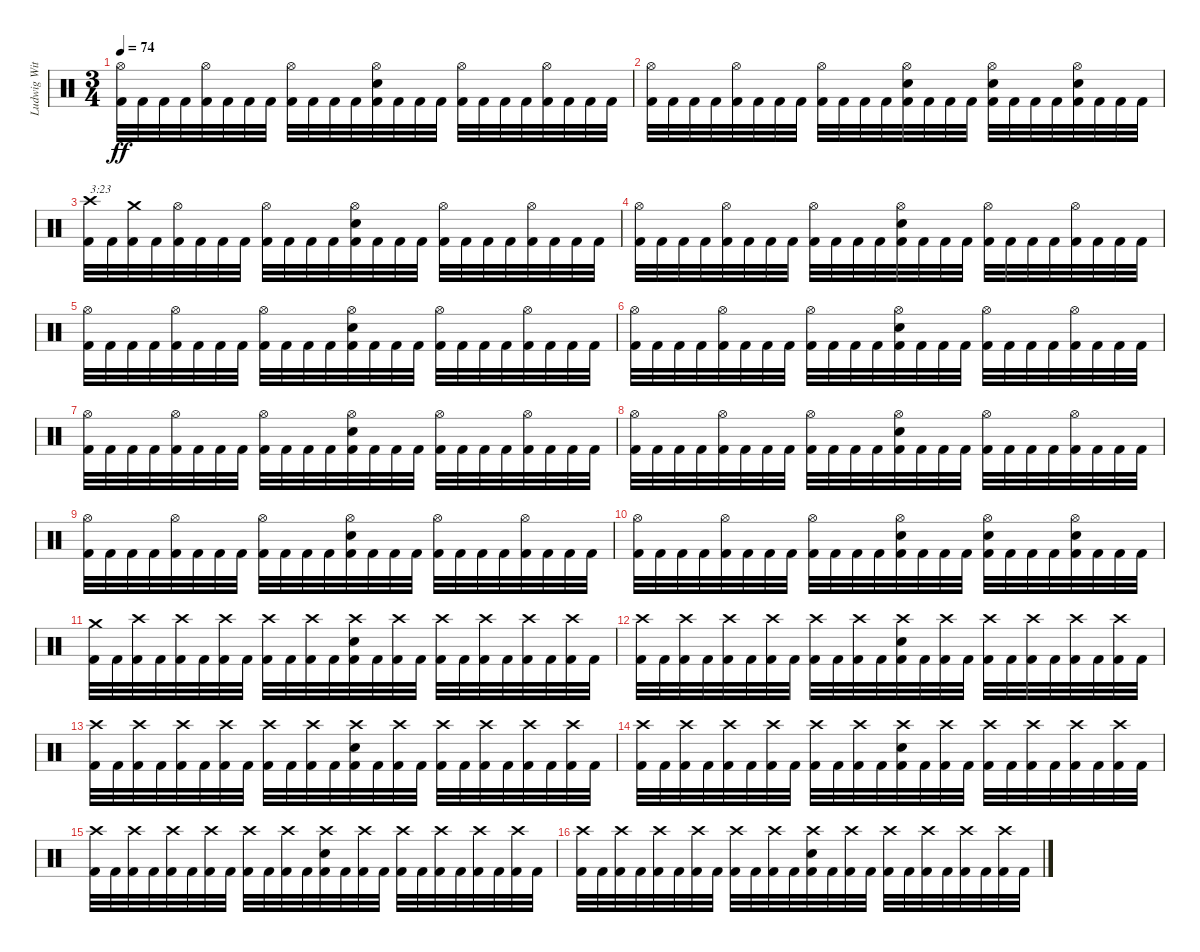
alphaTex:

\track ("Ludwig Witt (Drums)" "Ludwig Wit") {instrument percussion}
\staff
\articulation defaults
\ts (3 4)
\tempo 74
\clef neutral
\ks c
("Hi-Hat (open)" "Kick (hit) 2").32{dy ff} "Kick (hit) 2".32 "Kick (hit) 2".32 "Kick (hit) 2".32 ("Hi-Hat (open)" "Kick (hit) 2").32 "Kick (hit) 2".32 "Kick (hit) 2".32 "Kick (hit) 2".32 ("Hi-Hat (open)" "Kick (hit) 2").32 "Kick (hit) 2".32 "Kick (hit) 2".32 "Kick (hit) 2".32 ("Hi-Hat (open)" "Electric Snare (hit)" "Kick (hit) 2").32 "Kick (hit) 2".32 "Kick (hit) 2".32 "Kick (hit) 2".32 ("Hi-Hat (open)" "Kick (hit) 2").32 "Kick (hit) 2".32 "Kick (hit) 2".32 "Kick (hit) 2".32 ("Hi-Hat (open)" "Kick (hit) 2").32 "Kick (hit) 2".32 "Kick (hit) 2".32 "Kick (hit) 2".32 |
("Hi-Hat (open)" "Kick (hit) 2").32 "Kick (hit) 2".32 "Kick (hit) 2".32 "Kick (hit) 2".32 ("Hi-Hat (open)" "Kick (hit) 2").32 "Kick (hit) 2".32 "Kick (hit) 2".32 "Kick (hit) 2".32 ("Hi-Hat (open)" "Kick (hit) 2").32 "Kick (hit) 2".32 "Kick (hit) 2".32 "Kick (hit) 2".32 ("Hi-Hat (open)" "Electric Snare (hit)" "Kick (hit) 2").32 "Kick (hit) 2".32 "Kick (hit) 2".32 "Kick (hit) 2".32 ("Hi-Hat (open)" "Electric Snare (hit)" "Kick (hit) 2").32 "Kick (hit) 2".32 "Kick (hit) 2".32 "Kick (hit) 2".32 ("Hi-Hat (open)" "Electric Snare (hit)" "Kick (hit) 2").32 "Kick (hit) 2".32 "Kick (hit) 2".32 "Kick (hit) 2".32 |
("Crash high (hit)" "Kick (hit) 2").32{txt "3:23"} "Kick (hit) 2".32 ("Crash medium (hit)" "Kick (hit) 2").32 "Kick (hit) 2".32 ("Hi-Hat (open)" "Kick (hit) 2").32 "Kick (hit) 2".32 "Kick (hit) 2".32 "Kick (hit) 2".32 ("Hi-Hat (open)" "Kick (hit) 2").32 "Kick (hit) 2".32 "Kick (hit) 2".32 "Kick (hit) 2".32 ("Hi-Hat (open)" "Electric Snare (hit)" "Kick (hit) 2").32 "Kick (hit) 2".32 "Kick (hit) 2".32 "Kick (hit) 2".32 ("Hi-Hat (open)" "Kick (hit) 2").32 "Kick (hit) 2".32 "Kick (hit) 2".32 "Kick (hit) 2".32 ("Hi-Hat (open)" "Kick (hit) 2").32 "Kick (hit) 2".32 "Kick (hit) 2".32 "Kick (hit) 2".32 |
("Hi-Hat (open)" "Kick (hit) 2").32 "Kick (hit) 2".32 "Kick (hit) 2".32 "Kick (hit) 2".32 ("Hi-Hat (open)" "Kick (hit) 2").32 "Kick (hit) 2".32 "Kick (hit) 2".32 "Kick (hit) 2".32 ("Hi-Hat (open)" "Kick (hit) 2").32 "Kick (hit) 2".32 "Kick (hit) 2".32 "Kick (hit) 2".32 ("Hi-Hat (open)" "Electric Snare (hit)" "Kick (hit) 2").32 "Kick (hit) 2".32 "Kick (hit) 2".32 "Kick (hit) 2".32 ("Hi-Hat (open)" "Kick (hit) 2").32 "Kick (hit) 2".32 "Kick (hit) 2".32 "Kick (hit) 2".32 ("Hi-Hat (open)" "Kick (hit) 2").32 "Kick (hit) 2".32 "Kick (hit) 2".32 "Kick (hit) 2".32 |
("Hi-Hat (open)" "Kick (hit) 2").32 "Kick (hit) 2".32 "Kick (hit) 2".32 "Kick (hit) 2".32 ("Hi-Hat (open)" "Kick (hit) 2").32 "Kick (hit) 2".32 "Kick (hit) 2".32 "Kick (hit) 2".32 ("Hi-Hat (open)" "Kick (hit) 2").32 "Kick (hit) 2".32 "Kick (hit) 2".32 "Kick (hit) 2".32 ("Hi-Hat (open)" "Electric Snare (hit)" "Kick (hit) 2").32 "Kick (hit) 2".32 "Kick (hit) 2".32 "Kick (hit) 2".32 ("Hi-Hat (open)" "Kick (hit) 2").32 "Kick (hit) 2".32 "Kick (hit) 2".32 "Kick (hit) 2".32 ("Hi-Hat (open)" "Kick (hit) 2").32 "Kick (hit) 2".32 "Kick (hit) 2".32 "Kick (hit) 2".32 |
("Hi-Hat (open)" "Kick (hit) 2").32 "Kick (hit) 2".32 "Kick (hit) 2".32 "Kick (hit) 2".32 ("Hi-Hat (open)" "Kick (hit) 2").32 "Kick (hit) 2".32 "Kick (hit) 2".32 "Kick (hit) 2".32 ("Hi-Hat (open)" "Kick (hit) 2").32 "Kick (hit) 2".32 "Kick (hit) 2".32 "Kick (hit) 2".32 ("Hi-Hat (open)" "Electric Snare (hit)" "Kick (hit) 2").32 "Kick (hit) 2".32 "Kick (hit) 2".32 "Kick (hit) 2".32 ("Hi-Hat (open)" "Kick (hit) 2").32 "Kick (hit) 2".32 "Kick (hit) 2".32 "Kick (hit) 2".32 ("Hi-Hat (open)" "Kick (hit) 2").32 "Kick (hit) 2".32 "Kick (hit) 2".32 "Kick (hit) 2".32 |
("Hi-Hat (open)" "Kick (hit) 2").32 "Kick (hit) 2".32 "Kick (hit) 2".32 "Kick (hit) 2".32 ("Hi-Hat (open)" "Kick (hit) 2").32 "Kick (hit) 2".32 "Kick (hit) 2".32 "Kick (hit) 2".32 ("Hi-Hat (open)" "Kick (hit) 2").32 "Kick (hit) 2".32 "Kick (hit) 2".32 "Kick (hit) 2".32 ("Hi-Hat (open)" "Electric Snare (hit)" "Kick (hit) 2").32 "Kick (hit) 2".32 "Kick (hit) 2".32 "Kick (hit) 2".32 ("Hi-Hat (open)" "Kick (hit) 2").32 "Kick (hit) 2".32 "Kick (hit) 2".32 "Kick (hit) 2".32 ("Hi-Hat (open)" "Kick (hit) 2").32 "Kick (hit) 2".32 "Kick (hit) 2".32 "Kick (hit) 2".32 |
("Hi-Hat (open)" "Kick (hit) 2").32 "Kick (hit) 2".32 "Kick (hit) 2".32 "Kick (hit) 2".32 ("Hi-Hat (open)" "Kick (hit) 2").32 "Kick (hit) 2".32 "Kick (hit) 2".32 "Kick (hit) 2".32 ("Hi-Hat (open)" "Kick (hit) 2").32 "Kick (hit) 2".32 "Kick (hit) 2".32 "Kick (hit) 2".32 ("Hi-Hat (open)" "Electric Snare (hit)" "Kick (hit) 2").32 "Kick (hit) 2".32 "Kick (hit) 2".32 "Kick (hit) 2".32 ("Hi-Hat (open)" "Kick (hit) 2").32 "Kick (hit) 2".32 "Kick (hit) 2".32 "Kick (hit) 2".32 ("Hi-Hat (open)" "Kick (hit) 2").32 "Kick (hit) 2".32 "Kick (hit) 2".32 "Kick (hit) 2".32 |
("Hi-Hat (open)" "Kick (hit) 2").32 "Kick (hit) 2".32 "Kick (hit) 2".32 "Kick (hit) 2".32 ("Hi-Hat (open)" "Kick (hit) 2").32 "Kick (hit) 2".32 "Kick (hit) 2".32 "Kick (hit) 2".32 ("Hi-Hat (open)" "Kick (hit) 2").32 "Kick (hit) 2".32 "Kick (hit) 2".32 "Kick (hit) 2".32 ("Hi-Hat (open)" "Electric Snare (hit)" "Kick (hit) 2").32 "Kick (hit) 2".32 "Kick (hit) 2".32 "Kick (hit) 2".32 ("Hi-Hat (open)" "Kick (hit) 2").32 "Kick (hit) 2".32 "Kick (hit) 2".32 "Kick (hit) 2".32 ("Hi-Hat (open)" "Kick (hit) 2").32 "Kick (hit) 2".32 "Kick (hit) 2".32 "Kick (hit) 2".32 |
("Hi-Hat (open)" "Kick (hit) 2").32 "Kick (hit) 2".32 "Kick (hit) 2".32 "Kick (hit) 2".32 ("Hi-Hat (open)" "Kick (hit) 2").32 "Kick (hit) 2".32 "Kick (hit) 2".32 "Kick (hit) 2".32 ("Hi-Hat (open)" "Kick (hit) 2").32 "Kick (hit) 2".32 "Kick (hit) 2".32 "Kick (hit) 2".32 ("Hi-Hat (open)" "Electric Snare (hit)" "Kick (hit) 2").32 "Kick (hit) 2".32 "Kick (hit) 2".32 "Kick (hit) 2".32 ("Hi-Hat (open)" "Electric Snare (hit)" "Kick (hit) 2").32 "Kick (hit) 2".32 "Kick (hit) 2".32 "Kick (hit) 2".32 ("Hi-Hat (open)" "Electric Snare (hit)" "Kick (hit) 2").32 "Kick (hit) 2".32 "Kick (hit) 2".32 "Kick (hit) 2".32 |
("Crash medium (hit)" "Kick (hit) 2").32 "Kick (hit) 2".32 ("Crash high (hit)" "Kick (hit) 2").32 "Kick (hit) 2".32 ("Crash high (hit)" "Kick (hit) 2").32 "Kick (hit) 2".32 ("Crash high (hit)" "Kick (hit) 2").32 "Kick (hit) 2".32 ("Crash high (hit)" "Kick (hit) 2").32 "Kick (hit) 2".32 ("Crash high (hit)" "Kick (hit) 2").32 "Kick (hit) 2".32 ("Crash high (hit)" "Electric Snare (hit)" "Kick (hit) 2").32 "Kick (hit) 2".32 ("Crash high (hit)" "Kick (hit) 2").32 "Kick (hit) 2".32 ("Crash high (hit)" "Kick (hit) 2").32 "Kick (hit) 2".32 ("Crash high (hit)" "Kick (hit) 2").32 "Kick (hit) 2".32 ("Crash high (hit)" "Kick (hit) 2").32 "Kick (hit) 2".32 ("Crash high (hit)" "Kick (hit) 2").32 "Kick (hit) 2".32 |
("Crash high (hit)" "Kick (hit) 2").32 "Kick (hit) 2".32 ("Crash high (hit)" "Kick (hit) 2").32 "Kick (hit) 2".32 ("Crash high (hit)" "Kick (hit) 2").32 "Kick (hit) 2".32 ("Crash high (hit)" "Kick (hit) 2").32 "Kick (hit) 2".32 ("Crash high (hit)" "Kick (hit) 2").32 "Kick (hit) 2".32 ("Crash high (hit)" "Kick (hit) 2").32 "Kick (hit) 2".32 ("Crash high (hit)" "Electric Snare (hit)" "Kick (hit) 2").32 "Kick (hit) 2".32 ("Crash high (hit)" "Kick (hit) 2").32 "Kick (hit) 2".32 ("Crash high (hit)" "Kick (hit) 2").32 "Kick (hit) 2".32 ("Crash high (hit)" "Kick (hit) 2").32 "Kick (hit) 2".32 ("Crash high (hit)" "Kick (hit) 2").32 "Kick (hit) 2".32 ("Crash high (hit)" "Kick (hit) 2").32 "Kick (hit) 2".32 |
("Crash high (hit)" "Kick (hit) 2").32 "Kick (hit) 2".32 ("Crash high (hit)" "Kick (hit) 2").32 "Kick (hit) 2".32 ("Crash high (hit)" "Kick (hit) 2").32 "Kick (hit) 2".32 ("Crash high (hit)" "Kick (hit) 2").32 "Kick (hit) 2".32 ("Crash high (hit)" "Kick (hit) 2").32 "Kick (hit) 2".32 ("Crash high (hit)" "Kick (hit) 2").32 "Kick (hit) 2".32 ("Crash high (hit)" "Electric Snare (hit)" "Kick (hit) 2").32 "Kick (hit) 2".32 ("Crash high (hit)" "Kick (hit) 2").32 "Kick (hit) 2".32 ("Crash high (hit)" "Kick (hit) 2").32 "Kick (hit) 2".32 ("Crash high (hit)" "Kick (hit) 2").32 "Kick (hit) 2".32 ("Crash high (hit)" "Kick (hit) 2").32 "Kick (hit) 2".32 ("Crash high (hit)" "Kick (hit) 2").32 "Kick (hit) 2".32 |
("Crash high (hit)" "Kick (hit) 2").32 "Kick (hit) 2".32 ("Crash high (hit)" "Kick (hit) 2").32 "Kick (hit) 2".32 ("Crash high (hit)" "Kick (hit) 2").32 "Kick (hit) 2".32 ("Crash high (hit)" "Kick (hit) 2").32 "Kick (hit) 2".32 ("Crash high (hit)" "Kick (hit) 2").32 "Kick (hit) 2".32 ("Crash high (hit)" "Kick (hit) 2").32 "Kick (hit) 2".32 ("Crash high (hit)" "Electric Snare (hit)" "Kick (hit) 2").32 "Kick (hit) 2".32 ("Crash high (hit)" "Kick (hit) 2").32 "Kick (hit) 2".32 ("Crash high (hit)" "Kick (hit) 2").32 "Kick (hit) 2".32 ("Crash high (hit)" "Kick (hit) 2").32 "Kick (hit) 2".32 ("Crash high (hit)" "Kick (hit) 2").32 "Kick (hit) 2".32 ("Crash high (hit)" "Kick (hit) 2").32 "Kick (hit) 2".32 |
("Crash high (hit)" "Kick (hit) 2").32 "Kick (hit) 2".32 ("Crash high (hit)" "Kick (hit) 2").32 "Kick (hit) 2".32 ("Crash high (hit)" "Kick (hit) 2").32 "Kick (hit) 2".32 ("Crash high (hit)" "Kick (hit) 2").32 "Kick (hit) 2".32 ("Crash high (hit)" "Kick (hit) 2").32 "Kick (hit) 2".32 ("Crash high (hit)" "Kick (hit) 2").32 "Kick (hit) 2".32 ("Crash high (hit)" "Electric Snare (hit)" "Kick (hit) 2").32 "Kick (hit) 2".32 ("Crash high (hit)" "Kick (hit) 2").32 "Kick (hit) 2".32 ("Crash high (hit)" "Kick (hit) 2").32 "Kick (hit) 2".32 ("Crash high (hit)" "Kick (hit) 2").32 "Kick (hit) 2".32 ("Crash high (hit)" "Kick (hit) 2").32 "Kick (hit) 2".32 ("Crash high (hit)" "Kick (hit) 2").32 "Kick (hit) 2".32 |
("Crash high (hit)" "Kick (hit) 2").32 "Kick (hit) 2".32 ("Crash high (hit)" "Kick (hit) 2").32 "Kick (hit) 2".32 ("Crash high (hit)" "Kick (hit) 2").32 "Kick (hit) 2".32 ("Crash high (hit)" "Kick (hit) 2").32 "Kick (hit) 2".32 ("Crash high (hit)" "Kick (hit) 2").32 "Kick (hit) 2".32 ("Crash high (hit)" "Kick (hit) 2").32 "Kick (hit) 2".32 ("Crash high (hit)" "Electric Snare (hit)" "Kick (hit) 2").32 "Kick (hit) 2".32 ("Crash high (hit)" "Kick (hit) 2").32 "Kick (hit) 2".32 ("Crash high (hit)" "Kick (hit) 2").32 "Kick (hit) 2".32 ("Crash high (hit)" "Kick (hit) 2").32 "Kick (hit) 2".32 ("Crash high (hit)" "Kick (hit) 2").32 "Kick (hit) 2".32 ("Crash high (hit)" "Kick (hit) 2").32 "Kick (hit) 2".32
